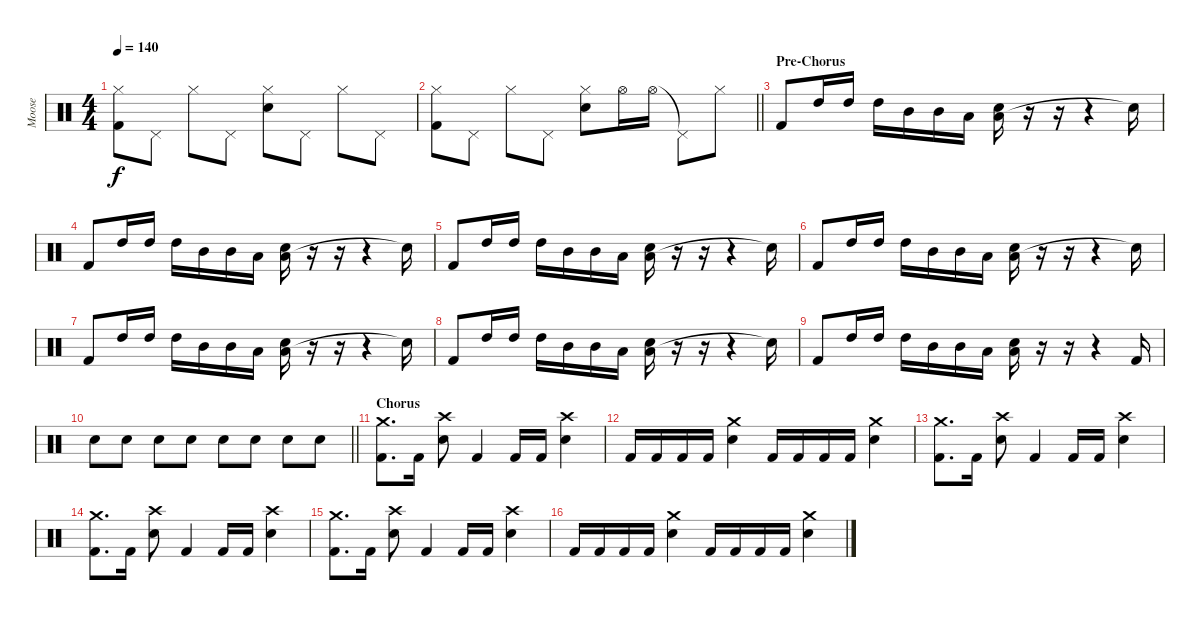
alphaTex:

\track ("Moose" "Moose") {instrument percussion}
\staff {score}
\articulation defaults
\ts (4 4)
\tempo 140
\clef neutral
\ks c
("Hi-Hat (closed)" "Kick (hit) 2").8{dy f} "Pedal Hi-Hat (hit)".8 "Hi-Hat (closed)".8 "Pedal Hi-Hat (hit)".8 ("Hi-Hat (closed)" "Snare (hit) 2").8 "Pedal Hi-Hat (hit)".8 "Hi-Hat (closed)".8 "Pedal Hi-Hat (hit)".8 |
\barLineRight lightlight
("Hi-Hat (closed)" "Kick (hit) 2").8 "Pedal Hi-Hat (hit)".8 "Hi-Hat (closed)".8 "Pedal Hi-Hat (hit)".8 ("Hi-Hat (closed)" "Snare (hit) 2").8 "Hi-Hat (open)".16 "Hi-Hat (open)".16 "Pedal Hi-Hat (hit)"{t}.8 "Hi-Hat (closed)".8 |
\section ("" "Pre-Chorus")
"Kick (hit) 2".8 "High Tom (hit)".16 "High Tom (hit)".16 "High Tom (hit)".16 "Mid Tom (hit)".16 "Mid Tom (hit)".16 "Low Tom (hit)".16 ("Low Tom (hit)" "Snare (hit) 2").16 r.16 r.16 r.4 "Snare (hit)"{t}.16 |
"Kick (hit) 2".8 "High Tom (hit)".16 "High Tom (hit)".16 "High Tom (hit)".16 "Mid Tom (hit)".16 "Mid Tom (hit)".16 "Low Tom (hit)".16 ("Low Tom (hit)" "Snare (hit) 2").16 r.16 r.16 r.4 "Snare (hit)"{t}.16 |
"Kick (hit) 2".8 "High Tom (hit)".16 "High Tom (hit)".16 "High Tom (hit)".16 "Mid Tom (hit)".16 "Mid Tom (hit)".16 "Low Tom (hit)".16 ("Low Tom (hit)" "Snare (hit) 2").16 r.16 r.16 r.4 "Snare (hit)"{t}.16 |
"Kick (hit) 2".8 "High Tom (hit)".16 "High Tom (hit)".16 "High Tom (hit)".16 "Mid Tom (hit)".16 "Mid Tom (hit)".16 "Low Tom (hit)".16 ("Low Tom (hit)" "Snare (hit) 2").16 r.16 r.16 r.4 "Snare (hit)"{t}.16 |
"Kick (hit) 2".8 "High Tom (hit)".16 "High Tom (hit)".16 "High Tom (hit)".16 "Mid Tom (hit)".16 "Mid Tom (hit)".16 "Low Tom (hit)".16 ("Low Tom (hit)" "Snare (hit) 2").16 r.16 r.16 r.4 "Snare (hit)"{t}.16 |
"Kick (hit) 2".8 "High Tom (hit)".16 "High Tom (hit)".16 "High Tom (hit)".16 "Mid Tom (hit)".16 "Mid Tom (hit)".16 "Low Tom (hit)".16 ("Low Tom (hit)" "Snare (hit) 2").16 r.16 r.16 r.4 "Snare (hit)"{t}.16 |
"Kick (hit) 2".8 "High Tom (hit)".16 "High Tom (hit)".16 "High Tom (hit)".16 "Mid Tom (hit)".16 "Mid Tom (hit)".16 "Low Tom (hit)".16 ("Low Tom (hit)" "Snare (hit) 2").16 r.16 r.16 r.4 "Kick (hit) 2".16 |
\barLineRight lightlight "Snare (hit) 2".8 "Snare (hit) 2".8 "Snare (hit) 2".8 "Snare (hit) 2".8 "Snare (hit) 2".8 "Snare (hit) 2".8 "Snare (hit) 2".8 "Snare (hit) 2".8
|
\section ("" "Chorus")
("Crash medium (hit)" "Kick (hit) 2").8{d} "Kick (hit) 2".16 ("Crash high (hit)" "Snare (hit) 2").8 "Kick (hit) 2".4 "Kick (hit) 2".16 "Kick (hit) 2".16 ("Crash high (hit)" "Snare (hit) 2").4 |
"Kick (hit) 2".16 "Kick (hit) 2".16 "Kick (hit) 2".16 "Kick (hit) 2".16 ("Crash medium (hit)" "Snare (hit) 2").4 "Kick (hit) 2".16 "Kick (hit) 2".16 "Kick (hit) 2".16 "Kick (hit) 2".16 ("Crash medium (hit)" "Snare (hit) 2").4 |
("Crash medium (hit)" "Kick (hit) 2").8{d} "Kick (hit) 2".16 ("Crash high (hit)" "Snare (hit) 2").8 "Kick (hit) 2".4 "Kick (hit) 2".16 "Kick (hit) 2".16 ("Crash high (hit)" "Snare (hit) 2").4 |
("Crash medium (hit)" "Kick (hit) 2").8{d} "Kick (hit) 2".16 ("Crash high (hit)" "Snare (hit) 2").8 "Kick (hit) 2".4 "Kick (hit) 2".16 "Kick (hit) 2".16 ("Crash high (hit)" "Snare (hit) 2").4 |
("Crash medium (hit)" "Kick (hit) 2").8{d} "Kick (hit) 2".16 ("Crash high (hit)" "Snare (hit) 2").8 "Kick (hit) 2".4 "Kick (hit) 2".16 "Kick (hit) 2".16 ("Crash high (hit)" "Snare (hit) 2").4 |
"Kick (hit) 2".16 "Kick (hit) 2".16 "Kick (hit) 2".16 "Kick (hit) 2".16 ("Crash medium (hit)" "Snare (hit) 2").4 "Kick (hit) 2".16 "Kick (hit) 2".16 "Kick (hit) 2".16 "Kick (hit) 2".16 ("Crash medium (hit)" "Snare (hit) 2").4
